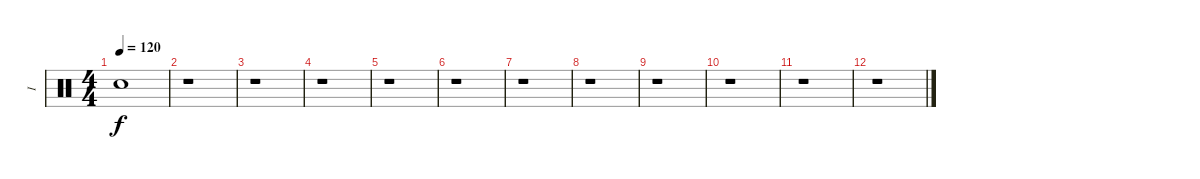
\track ("I" "I") {instrument percussion}
\staff {score}
\articulation defaults
\ts (4 4)
\tempo 120
\clef neutral
\ks c "Snare (hit) 2".1{dy f}
|
r.1 |
r.1 |
r.1 |
r.1 |
r.1 |
r.1 |
r.1 |
r.1 |
r.1 |
r.1 |
r.1
